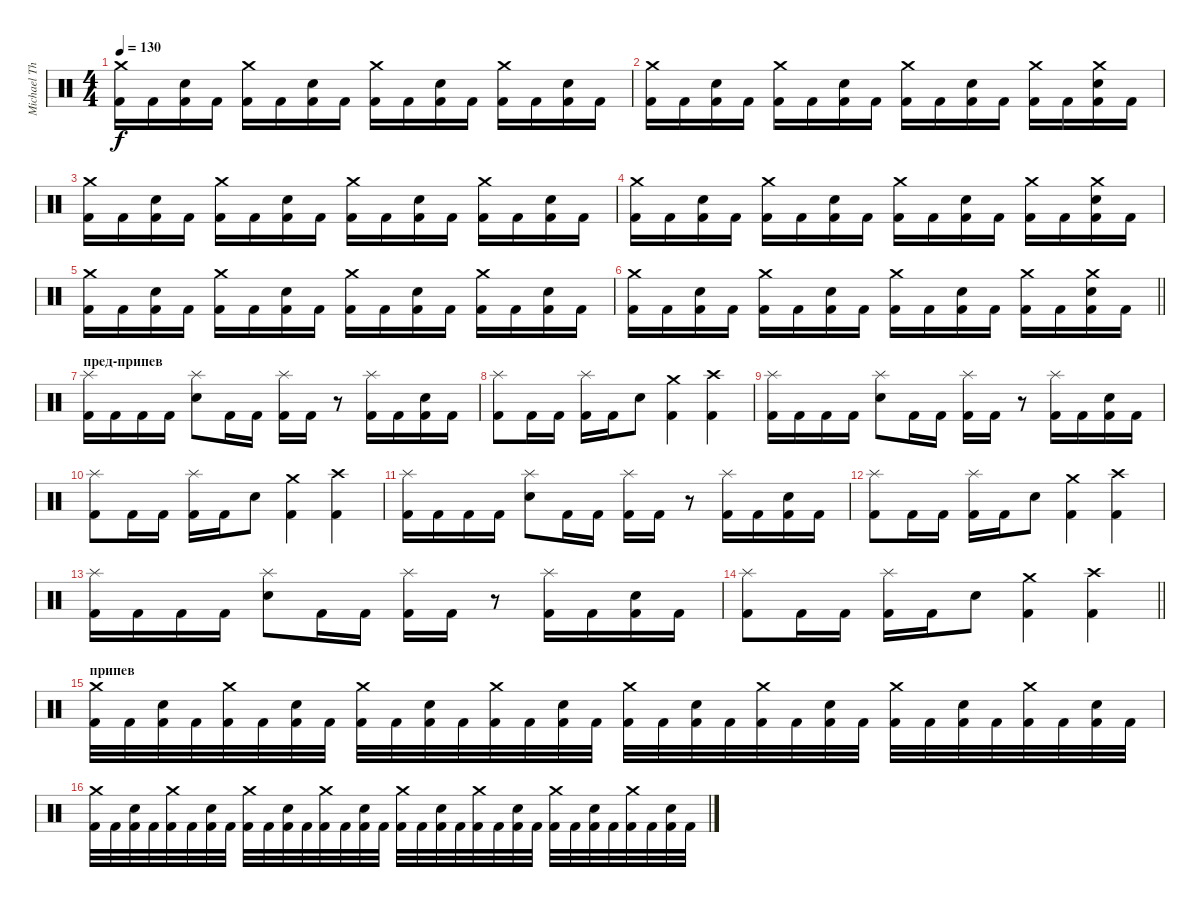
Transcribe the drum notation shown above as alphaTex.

\track ("Michael Thomas" "Michael Th") {instrument percussion}
\staff {score}
\articulation defaults
\ts (4 4)
\tempo 130
\clef neutral
\ks c
("Crash medium (hit)" "Kick (hit) 2").16{dy f} "Kick (hit) 2".16 ("Electric Snare (hit)" "Kick (hit) 2").16 "Kick (hit) 2".16 ("Crash medium (hit)" "Kick (hit) 2").16 "Kick (hit) 2".16 ("Electric Snare (hit)" "Kick (hit) 2").16 "Kick (hit) 2".16 ("Crash medium (hit)" "Kick (hit) 2").16 "Kick (hit) 2".16 ("Electric Snare (hit)" "Kick (hit) 2").16 "Kick (hit) 2".16 ("Crash medium (hit)" "Kick (hit) 2").16 "Kick (hit) 2".16 ("Electric Snare (hit)" "Kick (hit) 2").16 "Kick (hit) 2".16 |
("Crash medium (hit)" "Kick (hit) 2").16 "Kick (hit) 2".16 ("Electric Snare (hit)" "Kick (hit) 2").16 "Kick (hit) 2".16 ("Crash medium (hit)" "Kick (hit) 2").16 "Kick (hit) 2".16 ("Electric Snare (hit)" "Kick (hit) 2").16 "Kick (hit) 2".16 ("Crash medium (hit)" "Kick (hit) 2").16 "Kick (hit) 2".16 ("Electric Snare (hit)" "Kick (hit) 2").16 "Kick (hit) 2".16 ("Crash medium (hit)" "Kick (hit) 2").16 "Kick (hit) 2".16 ("Crash medium (hit)" "Electric Snare (hit)" "Kick (hit) 2").16 "Kick (hit) 2".16 |
("Crash medium (hit)" "Kick (hit) 2").16 "Kick (hit) 2".16 ("Electric Snare (hit)" "Kick (hit) 2").16 "Kick (hit) 2".16 ("Crash medium (hit)" "Kick (hit) 2").16 "Kick (hit) 2".16 ("Electric Snare (hit)" "Kick (hit) 2").16 "Kick (hit) 2".16 ("Crash medium (hit)" "Kick (hit) 2").16 "Kick (hit) 2".16 ("Electric Snare (hit)" "Kick (hit) 2").16 "Kick (hit) 2".16 ("Crash medium (hit)" "Kick (hit) 2").16 "Kick (hit) 2".16 ("Electric Snare (hit)" "Kick (hit) 2").16 "Kick (hit) 2".16 |
("Crash medium (hit)" "Kick (hit) 2").16 "Kick (hit) 2".16 ("Electric Snare (hit)" "Kick (hit) 2").16 "Kick (hit) 2".16 ("Crash medium (hit)" "Kick (hit) 2").16 "Kick (hit) 2".16 ("Electric Snare (hit)" "Kick (hit) 2").16 "Kick (hit) 2".16 ("Crash medium (hit)" "Kick (hit) 2").16 "Kick (hit) 2".16 ("Electric Snare (hit)" "Kick (hit) 2").16 "Kick (hit) 2".16 ("Crash medium (hit)" "Kick (hit) 2").16 "Kick (hit) 2".16 ("Crash medium (hit)" "Electric Snare (hit)" "Kick (hit) 2").16 "Kick (hit) 2".16 |
("Crash medium (hit)" "Kick (hit) 2").16 "Kick (hit) 2".16 ("Electric Snare (hit)" "Kick (hit) 2").16 "Kick (hit) 2".16 ("Crash medium (hit)" "Kick (hit) 2").16 "Kick (hit) 2".16 ("Electric Snare (hit)" "Kick (hit) 2").16 "Kick (hit) 2".16 ("Crash medium (hit)" "Kick (hit) 2").16 "Kick (hit) 2".16 ("Electric Snare (hit)" "Kick (hit) 2").16 "Kick (hit) 2".16 ("Crash medium (hit)" "Kick (hit) 2").16 "Kick (hit) 2".16 ("Electric Snare (hit)" "Kick (hit) 2").16 "Kick (hit) 2".16 |
\barLineRight lightlight
("Crash medium (hit)" "Kick (hit) 2").16 "Kick (hit) 2".16 ("Electric Snare (hit)" "Kick (hit) 2").16 "Kick (hit) 2".16 ("Crash medium (hit)" "Kick (hit) 2").16 "Kick (hit) 2".16 ("Electric Snare (hit)" "Kick (hit) 2").16 "Kick (hit) 2".16 ("Crash medium (hit)" "Kick (hit) 2").16 "Kick (hit) 2".16 ("Electric Snare (hit)" "Kick (hit) 2").16 "Kick (hit) 2".16 ("Crash medium (hit)" "Kick (hit) 2").16 "Kick (hit) 2".16 ("Crash medium (hit)" "Electric Snare (hit)" "Kick (hit) 2").16 "Kick (hit) 2".16 |
\section ("" "пред-припев")
("Splash (hit)" "Kick (hit) 2").16 "Kick (hit) 2".16 "Kick (hit) 2".16 "Kick (hit) 2".16 ("Splash (hit)" "Electric Snare (hit)").8 "Kick (hit) 2".16 "Kick (hit) 2".16 ("Splash (hit)" "Kick (hit) 2").16 "Kick (hit) 2".16 r.8 ("Splash (hit)" "Kick (hit) 2").16 "Kick (hit) 2".16 ("Electric Snare (hit)" "Kick (hit) 2").16 "Kick (hit) 2".16 |
("Splash (hit)" "Kick (hit) 2").8 "Kick (hit) 2".16 "Kick (hit) 2".16 ("Splash (hit)" "Kick (hit) 2").16 "Kick (hit) 2".16 "Electric Snare (hit)".8 ("Crash medium (hit)" "Kick (hit) 2").4 ("Crash high (hit)" "Kick (hit) 2").4 |
("Splash (hit)" "Kick (hit) 2").16 "Kick (hit) 2".16 "Kick (hit) 2".16 "Kick (hit) 2".16 ("Splash (hit)" "Electric Snare (hit)").8 "Kick (hit) 2".16 "Kick (hit) 2".16 ("Splash (hit)" "Kick (hit) 2").16 "Kick (hit) 2".16 r.8 ("Splash (hit)" "Kick (hit) 2").16 "Kick (hit) 2".16 ("Electric Snare (hit)" "Kick (hit) 2").16 "Kick (hit) 2".16 |
("Splash (hit)" "Kick (hit) 2").8 "Kick (hit) 2".16 "Kick (hit) 2".16 ("Splash (hit)" "Kick (hit) 2").16 "Kick (hit) 2".16 "Electric Snare (hit)".8 ("Crash medium (hit)" "Kick (hit) 2").4 ("Crash high (hit)" "Kick (hit) 2").4 |
("Splash (hit)" "Kick (hit) 2").16 "Kick (hit) 2".16 "Kick (hit) 2".16 "Kick (hit) 2".16 ("Splash (hit)" "Electric Snare (hit)").8 "Kick (hit) 2".16 "Kick (hit) 2".16 ("Splash (hit)" "Kick (hit) 2").16 "Kick (hit) 2".16 r.8 ("Splash (hit)" "Kick (hit) 2").16 "Kick (hit) 2".16 ("Electric Snare (hit)" "Kick (hit) 2").16 "Kick (hit) 2".16 |
("Splash (hit)" "Kick (hit) 2").8 "Kick (hit) 2".16 "Kick (hit) 2".16 ("Splash (hit)" "Kick (hit) 2").16 "Kick (hit) 2".16 "Electric Snare (hit)".8 ("Crash medium (hit)" "Kick (hit) 2").4 ("Crash high (hit)" "Kick (hit) 2").4 |
("Splash (hit)" "Kick (hit) 2").16 "Kick (hit) 2".16 "Kick (hit) 2".16 "Kick (hit) 2".16 ("Splash (hit)" "Electric Snare (hit)").8 "Kick (hit) 2".16 "Kick (hit) 2".16 ("Splash (hit)" "Kick (hit) 2").16 "Kick (hit) 2".16 r.8 ("Splash (hit)" "Kick (hit) 2").16 "Kick (hit) 2".16 ("Electric Snare (hit)" "Kick (hit) 2").16 "Kick (hit) 2".16 |
\barLineRight lightlight
("Splash (hit)" "Kick (hit) 2").8 "Kick (hit) 2".16 "Kick (hit) 2".16 ("Splash (hit)" "Kick (hit) 2").16 "Kick (hit) 2".16 "Electric Snare (hit)".8 ("Crash medium (hit)" "Kick (hit) 2").4 ("Crash high (hit)" "Kick (hit) 2").4 |
\section ("" "припев")
("Crash medium (hit)" "Kick (hit) 2").32 "Kick (hit) 2".32 ("Electric Snare (hit)" "Kick (hit) 2").32 "Kick (hit) 2".32 ("Crash medium (hit)" "Kick (hit) 2").32 "Kick (hit) 2".32 ("Electric Snare (hit)" "Kick (hit) 2").32 "Kick (hit) 2".32 ("Crash medium (hit)" "Kick (hit) 2").32 "Kick (hit) 2".32 ("Electric Snare (hit)" "Kick (hit) 2").32 "Kick (hit) 2".32 ("Crash medium (hit)" "Kick (hit) 2").32 "Kick (hit) 2".32 ("Electric Snare (hit)" "Kick (hit) 2").32 "Kick (hit) 2".32 ("Crash medium (hit)" "Kick (hit) 2").32 "Kick (hit) 2".32 ("Electric Snare (hit)" "Kick (hit) 2").32 "Kick (hit) 2".32 ("Crash medium (hit)" "Kick (hit) 2").32 "Kick (hit) 2".32 ("Electric Snare (hit)" "Kick (hit) 2").32 "Kick (hit) 2".32 ("Crash medium (hit)" "Kick (hit) 2").32 "Kick (hit) 2".32 ("Electric Snare (hit)" "Kick (hit) 2").32 "Kick (hit) 2".32 ("Crash medium (hit)" "Kick (hit) 2").32 "Kick (hit) 2".32 ("Electric Snare (hit)" "Kick (hit) 2").32 "Kick (hit) 2".32 |
("Crash medium (hit)" "Kick (hit) 2").32 "Kick (hit) 2".32 ("Electric Snare (hit)" "Kick (hit) 2").32 "Kick (hit) 2".32 ("Crash medium (hit)" "Kick (hit) 2").32 "Kick (hit) 2".32 ("Electric Snare (hit)" "Kick (hit) 2").32 "Kick (hit) 2".32 ("Crash medium (hit)" "Kick (hit) 2").32 "Kick (hit) 2".32 ("Electric Snare (hit)" "Kick (hit) 2").32 "Kick (hit) 2".32 ("Crash medium (hit)" "Kick (hit) 2").32 "Kick (hit) 2".32 ("Electric Snare (hit)" "Kick (hit) 2").32 "Kick (hit) 2".32 ("Crash medium (hit)" "Kick (hit) 2").32 "Kick (hit) 2".32 ("Electric Snare (hit)" "Kick (hit) 2").32 "Kick (hit) 2".32 ("Crash medium (hit)" "Kick (hit) 2").32 "Kick (hit) 2".32 ("Electric Snare (hit)" "Kick (hit) 2").32 "Kick (hit) 2".32 ("Crash medium (hit)" "Kick (hit) 2").32 "Kick (hit) 2".32 ("Electric Snare (hit)" "Kick (hit) 2").32 "Kick (hit) 2".32 ("Crash medium (hit)" "Kick (hit) 2").32 "Kick (hit) 2".32 ("Electric Snare (hit)" "Kick (hit) 2").32 "Kick (hit) 2".32
